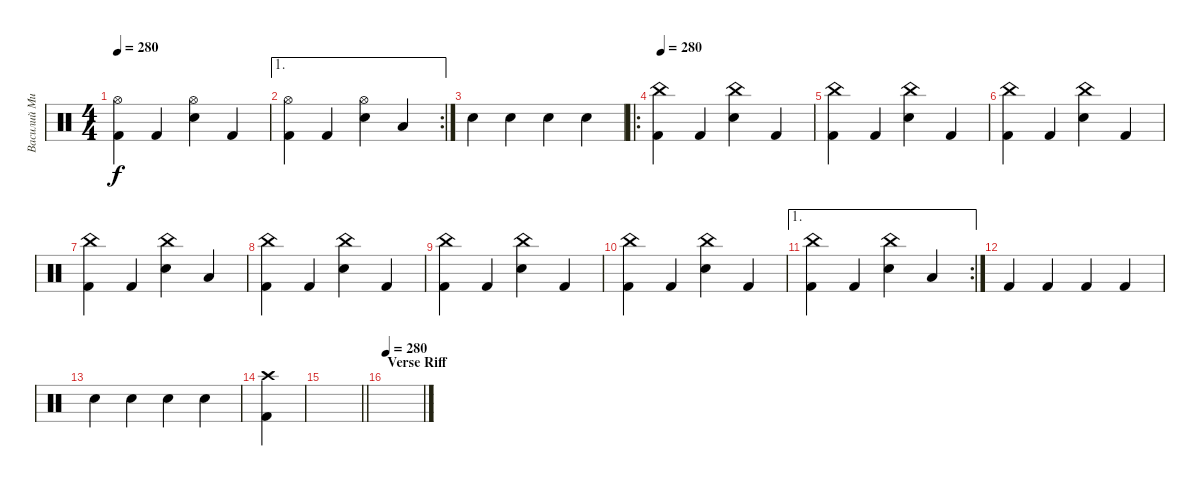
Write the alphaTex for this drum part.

\track ("Василий Михалыч-ударные" "Василий Ми") {instrument percussion}
\staff {score}
\articulation defaults
\ts (4 4)
\tempo 280
\clef neutral
\ks c
("Kick (hit) 2" "Hi-Hat (open)").4{dy f} "Kick (hit) 2".4 ("Snare (hit) 2" "Hi-Hat (open)").4 "Kick (hit) 2".4 |
\ae 1
\rc 2
("Kick (hit) 2" "Hi-Hat (open)").4 "Kick (hit) 2".4 ("Snare (hit) 2" "Hi-Hat (open)").4 "Low Tom (hit)".4 |
"Snare (hit) 2".4 "Snare (hit) 2".4 "Snare (hit) 2".4 "Snare (hit) 2".4 |
\ro
\tempo 280
("Kick (hit) 2" "China (hit)").4 "Kick (hit) 2".4 ("Snare (hit) 2" "China (hit)").4 "Kick (hit) 2".4 |
("Kick (hit) 2" "China (hit)").4 "Kick (hit) 2".4 ("Snare (hit) 2" "China (hit)").4 "Kick (hit) 2".4 |
("Kick (hit) 2" "China (hit)").4 "Kick (hit) 2".4 ("Snare (hit) 2" "China (hit)").4 "Kick (hit) 2".4 |
("Kick (hit) 2" "China (hit)").4 "Kick (hit) 2".4 ("Snare (hit) 2" "China (hit)").4 "Low Tom (hit)".4 |
("Kick (hit) 2" "China (hit)").4 "Kick (hit) 2".4 ("Snare (hit) 2" "China (hit)").4 "Kick (hit) 2".4 |
("Kick (hit) 2" "China (hit)").4 "Kick (hit) 2".4 ("Snare (hit) 2" "China (hit)").4 "Kick (hit) 2".4 |
("Kick (hit) 2" "China (hit)").4 "Kick (hit) 2".4 ("Snare (hit) 2" "China (hit)").4 "Kick (hit) 2".4 |
\ae 1
\rc 2
("Kick (hit) 2" "China (hit)").4 "Kick (hit) 2".4 ("Snare (hit) 2" "China (hit)").4 "Low Tom (hit)".4 |
"Kick (hit) 2".4 "Kick (hit) 2".4 "Kick (hit) 2".4 "Kick (hit) 2".4 |
"Snare (hit) 2".4 "Snare (hit) 2".4 "Snare (hit) 2".4 "Snare (hit) 2".4 |
("Kick (hit) 2" "Crash high (hit)").4 |
\barLineRight lightlight
|
\section ("" "Verse Riff")
\tempo 280
